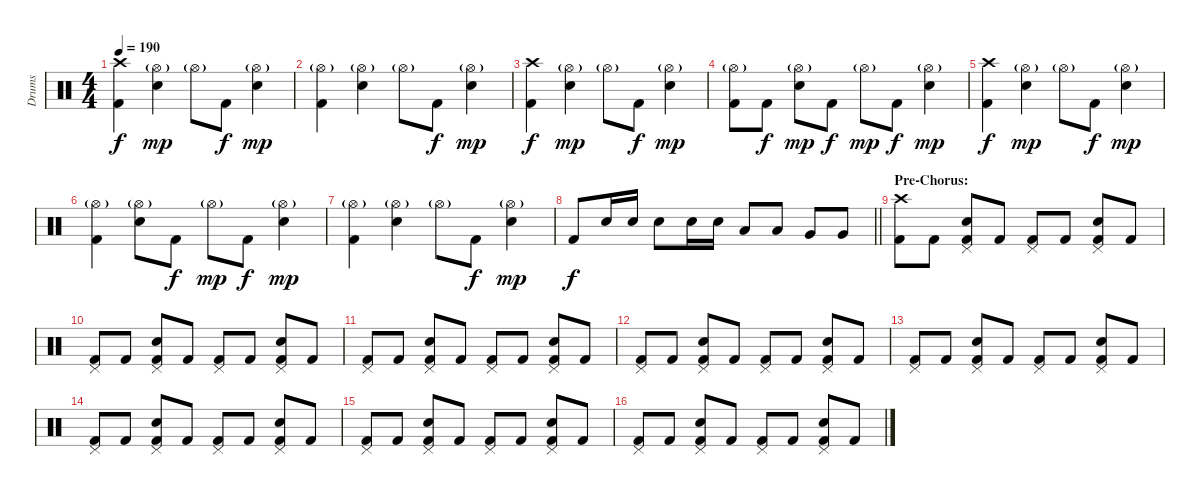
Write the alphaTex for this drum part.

\track ("Drums" "Drums") {instrument percussion}
\staff {score}
\articulation defaults
\ts (4 4)
\tempo 190
\clef neutral
\ks c
("Crash high (hit)" "Kick (hit) 2").4{dy f} ("Hi-Hat (open)"{g} "Electric Snare (hit)").4{dy mp} "Hi-Hat (open)"{g}.8 "Kick (hit) 2".8{dy f} ("Hi-Hat (open)"{g} "Electric Snare (hit)").4{dy mp} |
("Hi-Hat (open)"{g} "Kick (hit) 2").4 ("Hi-Hat (open)"{g} "Electric Snare (hit)").4 "Hi-Hat (open)"{g}.8 "Kick (hit) 2".8{dy f} ("Hi-Hat (open)"{g} "Electric Snare (hit)").4{dy mp} |
("Crash high (hit)" "Kick (hit) 2").4{dy f} ("Hi-Hat (open)"{g} "Electric Snare (hit)").4{dy mp} "Hi-Hat (open)"{g}.8 "Kick (hit) 2".8{dy f} ("Hi-Hat (open)"{g} "Electric Snare (hit)").4{dy mp} |
("Hi-Hat (open)"{g} "Kick (hit) 2").8 "Kick (hit) 2".8{dy f} ("Hi-Hat (open)"{g} "Electric Snare (hit)").8{dy mp} "Kick (hit) 2".8{dy f} "Hi-Hat (open)"{g}.8{dy mp} "Kick (hit) 2".8{dy f} ("Hi-Hat (open)"{g} "Electric Snare (hit)").4{dy mp} |
("Crash high (hit)" "Kick (hit) 2").4{dy f} ("Hi-Hat (open)"{g} "Electric Snare (hit)").4{dy mp} "Hi-Hat (open)"{g}.8 "Kick (hit) 2".8{dy f} ("Hi-Hat (open)"{g} "Electric Snare (hit)").4{dy mp} |
("Hi-Hat (open)"{g} "Kick (hit) 2").4 ("Hi-Hat (open)"{g} "Electric Snare (hit)").8 "Kick (hit) 2".8{dy f} "Hi-Hat (open)"{g}.8{dy mp} "Kick (hit) 2".8{dy f} ("Hi-Hat (open)"{g} "Electric Snare (hit)").4{dy mp} |
("Hi-Hat (open)"{g} "Kick (hit) 2").4 ("Hi-Hat (open)"{g} "Electric Snare (hit)").4 "Hi-Hat (open)"{g}.8 "Kick (hit) 2".8{dy f} ("Hi-Hat (open)"{g} "Electric Snare (hit)").4{dy mp} |
\barLineRight lightlight "Kick (hit) 2".8{dy f} "Electric Snare (hit)".16 "Electric Snare (hit)".16 "Electric Snare (hit)".8 "Electric Snare (hit)".16 "Electric Snare (hit)".16 "Low Tom (hit)".8 "Low Tom (hit)".8 "Very Low Tom (hit)".8 "Very Low Tom (hit)".8
|
\section ("" "Pre-Chorus:")
("Crash high (hit)" "Kick (hit) 2").8 "Kick (hit) 2".8 ("Pedal Hi-Hat (hit)" "Electric Snare (hit)" "Kick (hit) 2").8 "Kick (hit) 2".8 ("Pedal Hi-Hat (hit)" "Kick (hit) 2").8 "Kick (hit) 2".8 ("Pedal Hi-Hat (hit)" "Electric Snare (hit)" "Kick (hit) 2").8 "Kick (hit) 2".8 |
("Pedal Hi-Hat (hit)" "Kick (hit) 2").8 "Kick (hit) 2".8 ("Pedal Hi-Hat (hit)" "Electric Snare (hit)" "Kick (hit) 2").8 "Kick (hit) 2".8 ("Pedal Hi-Hat (hit)" "Kick (hit) 2").8 "Kick (hit) 2".8 ("Pedal Hi-Hat (hit)" "Electric Snare (hit)" "Kick (hit) 2").8 "Kick (hit) 2".8 |
("Pedal Hi-Hat (hit)" "Kick (hit) 2").8 "Kick (hit) 2".8 ("Pedal Hi-Hat (hit)" "Electric Snare (hit)" "Kick (hit) 2").8 "Kick (hit) 2".8 ("Pedal Hi-Hat (hit)" "Kick (hit) 2").8 "Kick (hit) 2".8 ("Pedal Hi-Hat (hit)" "Electric Snare (hit)" "Kick (hit) 2").8 "Kick (hit) 2".8 |
("Pedal Hi-Hat (hit)" "Kick (hit) 2").8 "Kick (hit) 2".8 ("Pedal Hi-Hat (hit)" "Electric Snare (hit)" "Kick (hit) 2").8 "Kick (hit) 2".8 ("Pedal Hi-Hat (hit)" "Kick (hit) 2").8 "Kick (hit) 2".8 ("Pedal Hi-Hat (hit)" "Electric Snare (hit)" "Kick (hit) 2").8 "Kick (hit) 2".8 |
("Pedal Hi-Hat (hit)" "Kick (hit) 2").8 "Kick (hit) 2".8 ("Pedal Hi-Hat (hit)" "Electric Snare (hit)" "Kick (hit) 2").8 "Kick (hit) 2".8 ("Pedal Hi-Hat (hit)" "Kick (hit) 2").8 "Kick (hit) 2".8 ("Pedal Hi-Hat (hit)" "Electric Snare (hit)" "Kick (hit) 2").8 "Kick (hit) 2".8 |
("Pedal Hi-Hat (hit)" "Kick (hit) 2").8 "Kick (hit) 2".8 ("Pedal Hi-Hat (hit)" "Electric Snare (hit)" "Kick (hit) 2").8 "Kick (hit) 2".8 ("Pedal Hi-Hat (hit)" "Kick (hit) 2").8 "Kick (hit) 2".8 ("Pedal Hi-Hat (hit)" "Electric Snare (hit)" "Kick (hit) 2").8 "Kick (hit) 2".8 |
("Pedal Hi-Hat (hit)" "Kick (hit) 2").8 "Kick (hit) 2".8 ("Pedal Hi-Hat (hit)" "Electric Snare (hit)" "Kick (hit) 2").8 "Kick (hit) 2".8 ("Pedal Hi-Hat (hit)" "Kick (hit) 2").8 "Kick (hit) 2".8 ("Pedal Hi-Hat (hit)" "Electric Snare (hit)" "Kick (hit) 2").8 "Kick (hit) 2".8 |
("Pedal Hi-Hat (hit)" "Kick (hit) 2").8 "Kick (hit) 2".8 ("Pedal Hi-Hat (hit)" "Electric Snare (hit)" "Kick (hit) 2").8 "Kick (hit) 2".8 ("Pedal Hi-Hat (hit)" "Kick (hit) 2").8 "Kick (hit) 2".8 ("Pedal Hi-Hat (hit)" "Electric Snare (hit)" "Kick (hit) 2").8 "Kick (hit) 2".8
